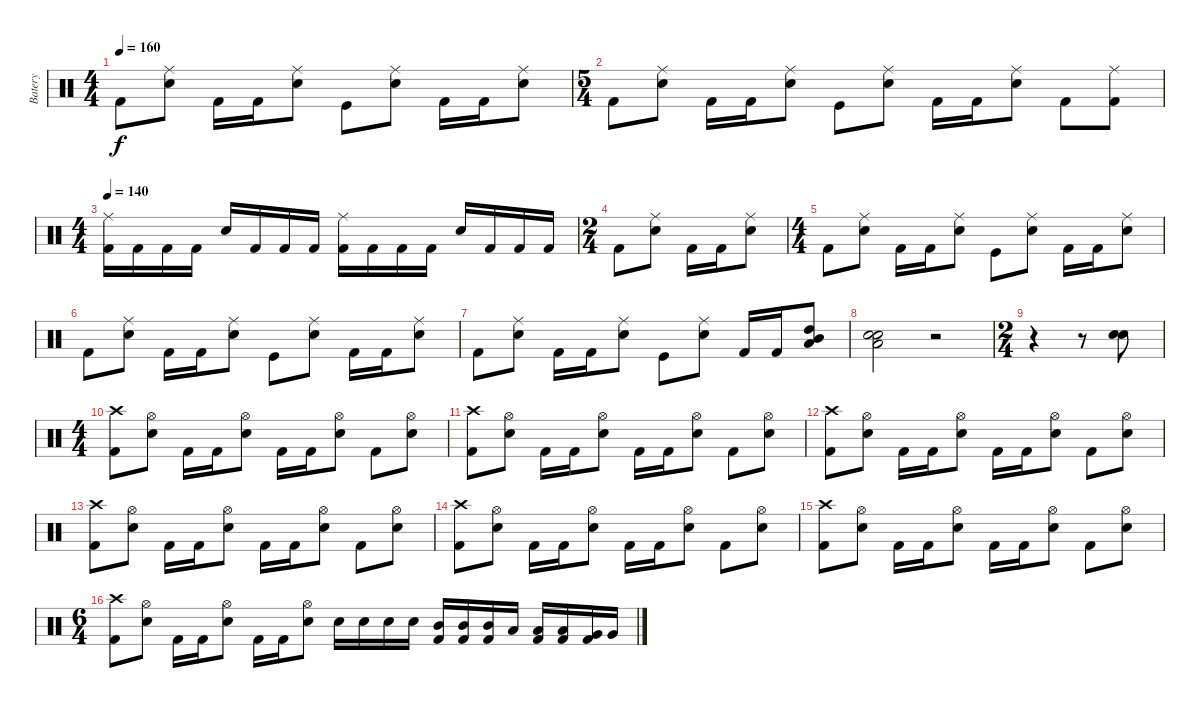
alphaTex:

\track ("Batery" "Batery") {instrument percussion}
\staff {score}
\articulation defaults
\ts (4 4)
\tempo 160
\clef neutral
\ks c "Kick (hit) 2".8{dy f}
("Electric Snare (hit)" "Ride (middle)").8 "Kick (hit) 2".16 "Kick (hit) 2".16 ("Electric Snare (hit)" "Ride (middle)").8 "Kick (hit)".8 ("Electric Snare (hit)" "Ride (middle)").8 "Kick (hit) 2".16 "Kick (hit) 2".16 ("Electric Snare (hit)" "Ride (middle)").8 |
\ts (5 4)
"Kick (hit) 2".8 ("Electric Snare (hit)" "Ride (middle)").8 "Kick (hit) 2".16 "Kick (hit) 2".16 ("Electric Snare (hit)" "Ride (middle)").8 "Kick (hit)".8 ("Electric Snare (hit)" "Ride (middle)").8 "Kick (hit) 2".16 "Kick (hit) 2".16 ("Electric Snare (hit)" "Ride (middle)").8 "Kick (hit) 2".8 ("Kick (hit) 2" "Ride (middle)").8 |
\ts (4 4)
\tempo 140
("Kick (hit) 2" "Ride (middle)").16 "Kick (hit) 2".16 "Kick (hit) 2".16 "Kick (hit) 2".16 "Electric Snare (hit)".16 "Kick (hit) 2".16 "Kick (hit) 2".16 "Kick (hit) 2".16 ("Kick (hit) 2" "Ride (middle)").16 "Kick (hit) 2".16 "Kick (hit) 2".16 "Kick (hit) 2".16 "Electric Snare (hit)".16 "Kick (hit) 2".16 "Kick (hit) 2".16 "Kick (hit) 2".16 |
\ts (2 4)
"Kick (hit) 2".8 ("Electric Snare (hit)" "Ride (middle)").8 "Kick (hit) 2".16 "Kick (hit) 2".16 ("Electric Snare (hit)" "Ride (middle)").8 |
\ts (4 4)
"Kick (hit) 2".8 ("Electric Snare (hit)" "Ride (middle)").8 "Kick (hit) 2".16 "Kick (hit) 2".16 ("Electric Snare (hit)" "Ride (middle)").8 "Kick (hit)".8 ("Electric Snare (hit)" "Ride (middle)").8 "Kick (hit) 2".16 "Kick (hit) 2".16 ("Electric Snare (hit)" "Ride (middle)").8 |
"Kick (hit) 2".8 ("Electric Snare (hit)" "Ride (middle)").8 "Kick (hit) 2".16 "Kick (hit) 2".16 ("Electric Snare (hit)" "Ride (middle)").8 "Kick (hit)".8 ("Electric Snare (hit)" "Ride (middle)").8 "Kick (hit) 2".16 "Kick (hit) 2".16 ("Electric Snare (hit)" "Ride (middle)").8 |
"Kick (hit) 2".8 ("Electric Snare (hit)" "Ride (middle)").8 "Kick (hit) 2".16 "Kick (hit) 2".16 ("Electric Snare (hit)" "Ride (middle)").8 "Kick (hit)".8 ("Electric Snare (hit)" "Ride (middle)").8 "Kick (hit) 2".16 "Kick (hit) 2".16 ("Low Tom (hit)" "Mid Tom (hit)" "High Tom (hit)").8 |
("Snare (hit) 2" "Electric Snare (hit)" "Low Floor Tom (hit)").2 r.2 |
\ts (2 4)
r.4 r.8 ("Electric Snare (hit)" "Snare (hit) 2").8 |
\ts (4 4)
("Kick (hit) 2" "Crash high (hit)").8 ("Electric Snare (hit)" "Hi-Hat (open)").8 "Kick (hit) 2".16 "Kick (hit) 2".16 ("Electric Snare (hit)" "Hi-Hat (open)").8 "Kick (hit) 2".16 "Kick (hit) 2".16 ("Electric Snare (hit)" "Hi-Hat (open)").8 "Kick (hit) 2".8 ("Electric Snare (hit)" "Hi-Hat (open)").8 |
("Kick (hit) 2" "Crash high (hit)").8 ("Electric Snare (hit)" "Hi-Hat (open)").8 "Kick (hit) 2".16 "Kick (hit) 2".16 ("Electric Snare (hit)" "Hi-Hat (open)").8 "Kick (hit) 2".16 "Kick (hit) 2".16 ("Electric Snare (hit)" "Hi-Hat (open)").8 "Kick (hit) 2".8 ("Electric Snare (hit)" "Hi-Hat (open)").8 |
("Kick (hit) 2" "Crash high (hit)").8 ("Electric Snare (hit)" "Hi-Hat (open)").8 "Kick (hit) 2".16 "Kick (hit) 2".16 ("Electric Snare (hit)" "Hi-Hat (open)").8 "Kick (hit) 2".16 "Kick (hit) 2".16 ("Electric Snare (hit)" "Hi-Hat (open)").8 "Kick (hit) 2".8 ("Electric Snare (hit)" "Hi-Hat (open)").8 |
("Kick (hit) 2" "Crash high (hit)").8 ("Electric Snare (hit)" "Hi-Hat (open)").8 "Kick (hit) 2".16 "Kick (hit) 2".16 ("Electric Snare (hit)" "Hi-Hat (open)").8 "Kick (hit) 2".16 "Kick (hit) 2".16 ("Electric Snare (hit)" "Hi-Hat (open)").8 "Kick (hit) 2".8 ("Electric Snare (hit)" "Hi-Hat (open)").8 |
("Kick (hit) 2" "Crash high (hit)").8 ("Electric Snare (hit)" "Hi-Hat (open)").8 "Kick (hit) 2".16 "Kick (hit) 2".16 ("Electric Snare (hit)" "Hi-Hat (open)").8 "Kick (hit) 2".16 "Kick (hit) 2".16 ("Electric Snare (hit)" "Hi-Hat (open)").8 "Kick (hit) 2".8 ("Electric Snare (hit)" "Hi-Hat (open)").8 |
("Kick (hit) 2" "Crash high (hit)").8 ("Electric Snare (hit)" "Hi-Hat (open)").8 "Kick (hit) 2".16 "Kick (hit) 2".16 ("Electric Snare (hit)" "Hi-Hat (open)").8 "Kick (hit) 2".16 "Kick (hit) 2".16 ("Electric Snare (hit)" "Hi-Hat (open)").8 "Kick (hit) 2".8 ("Electric Snare (hit)" "Hi-Hat (open)").8 |
\ts (6 4)
("Kick (hit) 2" "Crash high (hit)").8 ("Electric Snare (hit)" "Hi-Hat (open)").8 "Kick (hit) 2".16 "Kick (hit) 2".16 ("Electric Snare (hit)" "Hi-Hat (open)").8 "Kick (hit) 2".16 "Kick (hit) 2".16 ("Electric Snare (hit)" "Hi-Hat (open)").8 "Electric Snare (hit)".16 "Electric Snare (hit)".16 "Electric Snare (hit)".16 "Electric Snare (hit)".16 ("Kick (hit) 2" "Mid Tom (hit)").16 ("Kick (hit) 2" "Mid Tom (hit)").16 ("Kick (hit) 2" "Mid Tom (hit)").16 "Low Tom (hit)".16 ("Kick (hit) 2" "Low Tom (hit)").16 ("Kick (hit) 2" "Low Tom (hit)").16 ("Kick (hit) 2" "Very Low Tom (hit)").16 "Very Low Tom (hit)".16
